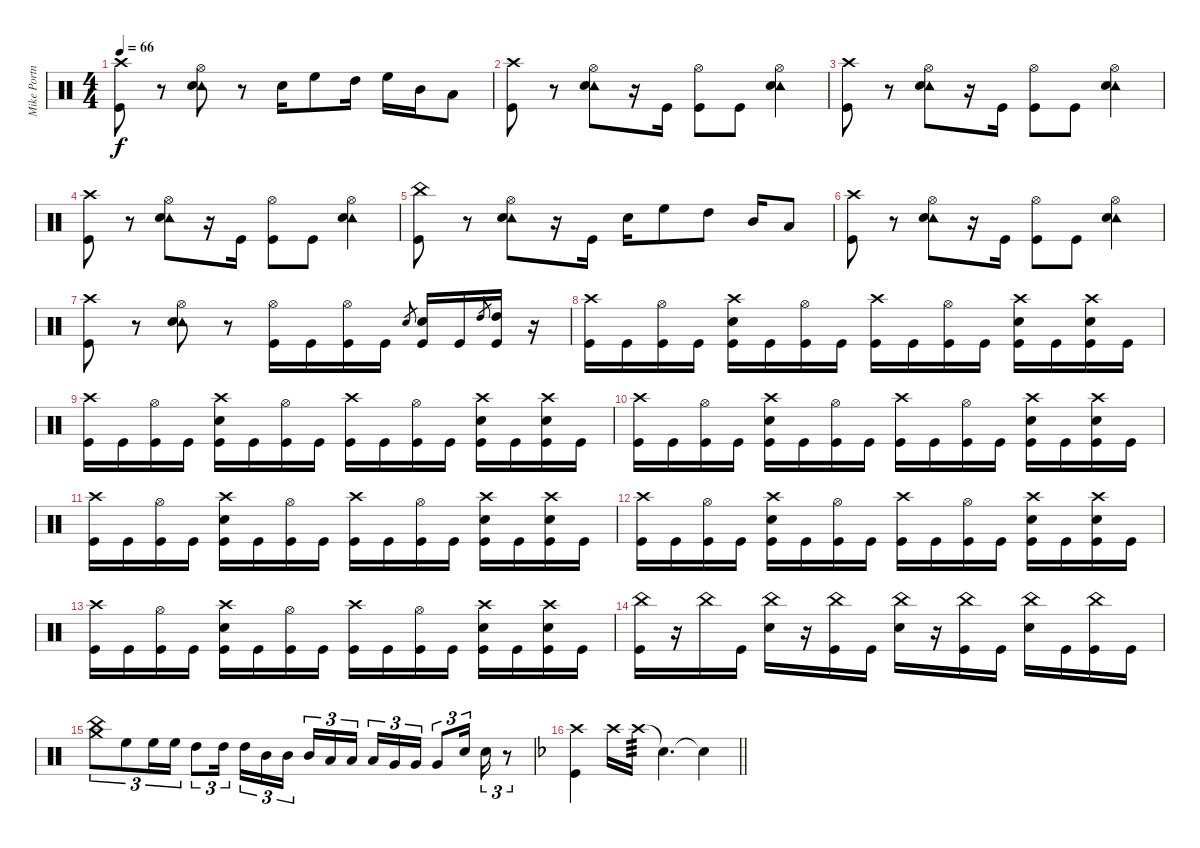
\track ("Mike Portnoy - Drums" "Mike Portn") {instrument percussion}
\staff {score}
\articulation defaults
\ts (4 4)
\tempo 66
\clef neutral
\ks aminor
("Crash high (hit)" "Kick (hit)").8{dy f} r.8 ("Hi-Hat (open)" "Tambourine (hit)" "Snare (hit) 2").8 r.8 "Snare (hit) 2".16 "High Floor Tom (hit)".8 "High Tom (hit)".16 "High Floor Tom (hit)".16 "Mid Tom (hit)".16 "Low Tom (hit)".8 |
("Crash high (hit)" "Kick (hit)").8 r.8 ("Hi-Hat (open)" "Tambourine (hit)" "Snare (hit) 2").8 r.16 "Kick (hit)".16 ("Hi-Hat (open)" "Kick (hit)").8 "Kick (hit)".8 ("Hi-Hat (open)" "Tambourine (hit)" "Snare (hit) 2").4 |
("Crash high (hit)" "Kick (hit)").8 r.8 ("Hi-Hat (open)" "Tambourine (hit)" "Snare (hit) 2").8 r.16 "Kick (hit)".16 ("Hi-Hat (open)" "Kick (hit)").8 "Kick (hit)".8 ("Hi-Hat (open)" "Tambourine (hit)" "Snare (hit) 2").4 |
("Crash high (hit)" "Kick (hit)").8 r.8 ("Hi-Hat (open)" "Tambourine (hit)" "Snare (hit) 2").8 r.16 "Kick (hit)".16 ("Hi-Hat (open)" "Kick (hit)").8 "Kick (hit)".8 ("Hi-Hat (open)" "Tambourine (hit)" "Snare (hit) 2").4 |
("China (hit)" "Kick (hit)").8 r.8 ("Hi-Hat (open)" "Tambourine (hit)" "Snare (hit) 2").8 r.16 "Kick (hit)".16 "Snare (hit) 2".16 "High Floor Tom (hit)".8 "High Tom (hit)".8 "Mid Tom (hit)".16 "Low Tom (hit)".8 |
("Crash high (hit)" "Kick (hit)").8 r.8 ("Hi-Hat (open)" "Tambourine (hit)" "Snare (hit) 2").8 r.16 "Kick (hit)".16 ("Hi-Hat (open)" "Kick (hit)").8 "Kick (hit)".8 ("Hi-Hat (open)" "Tambourine (hit)" "Snare (hit) 2").4 |
("Crash high (hit)" "Kick (hit)").8 r.8 ("Hi-Hat (open)" "Tambourine (hit)" "Snare (hit) 2").8 r.8 ("Hi-Hat (open)" "Kick (hit)").16 "Kick (hit)".16 ("Hi-Hat (open)" "Kick (hit)").16 "Kick (hit)".16 "Snare (hit) 2".8{gr} ("Snare (hit) 2" "Kick (hit)").16 "Kick (hit)".16 "High Tom (hit)".8{gr} ("High Tom (hit)" "Kick (hit)").16 r.16 |
("Crash high (hit)" "Kick (hit)").16 "Kick (hit)".16 ("Hi-Hat (open)" "Kick (hit)").16 "Kick (hit)".16 ("Crash high (hit)" "Snare (hit) 2" "Kick (hit)").16 "Kick (hit)".16 ("Hi-Hat (open)" "Kick (hit)").16 "Kick (hit)".16 ("Crash high (hit)" "Kick (hit)").16 "Kick (hit)".16 ("Hi-Hat (open)" "Kick (hit)").16 "Kick (hit)".16 ("Crash high (hit)" "Snare (hit) 2" "Kick (hit)").16 "Kick (hit)".16 ("Crash high (hit)" "Snare (hit) 2" "Kick (hit)").16 "Kick (hit)".16 |
("Crash high (hit)" "Kick (hit)").16 "Kick (hit)".16 ("Hi-Hat (open)" "Kick (hit)").16 "Kick (hit)".16 ("Crash high (hit)" "Snare (hit) 2" "Kick (hit)").16 "Kick (hit)".16 ("Hi-Hat (open)" "Kick (hit)").16 "Kick (hit)".16 ("Crash high (hit)" "Kick (hit)").16 "Kick (hit)".16 ("Hi-Hat (open)" "Kick (hit)").16 "Kick (hit)".16 ("Crash high (hit)" "Snare (hit) 2" "Kick (hit)").16 "Kick (hit)".16 ("Crash high (hit)" "Snare (hit) 2" "Kick (hit)").16 "Kick (hit)".16 |
("Crash high (hit)" "Kick (hit)").16 "Kick (hit)".16 ("Hi-Hat (open)" "Kick (hit)").16 "Kick (hit)".16 ("Crash high (hit)" "Snare (hit) 2" "Kick (hit)").16 "Kick (hit)".16 ("Hi-Hat (open)" "Kick (hit)").16 "Kick (hit)".16 ("Crash high (hit)" "Kick (hit)").16 "Kick (hit)".16 ("Hi-Hat (open)" "Kick (hit)").16 "Kick (hit)".16 ("Crash high (hit)" "Snare (hit) 2" "Kick (hit)").16 "Kick (hit)".16 ("Crash high (hit)" "Snare (hit) 2" "Kick (hit)").16 "Kick (hit)".16 |
("Crash high (hit)" "Kick (hit)").16 "Kick (hit)".16 ("Hi-Hat (open)" "Kick (hit)").16 "Kick (hit)".16 ("Crash high (hit)" "Snare (hit) 2" "Kick (hit)").16 "Kick (hit)".16 ("Hi-Hat (open)" "Kick (hit)").16 "Kick (hit)".16 ("Crash high (hit)" "Kick (hit)").16 "Kick (hit)".16 ("Hi-Hat (open)" "Kick (hit)").16 "Kick (hit)".16 ("Crash high (hit)" "Snare (hit) 2" "Kick (hit)").16 "Kick (hit)".16 ("Crash high (hit)" "Snare (hit) 2" "Kick (hit)").16 "Kick (hit)".16 |
("Crash high (hit)" "Kick (hit)").16 "Kick (hit)".16 ("Hi-Hat (open)" "Kick (hit)").16 "Kick (hit)".16 ("Crash high (hit)" "Snare (hit) 2" "Kick (hit)").16 "Kick (hit)".16 ("Hi-Hat (open)" "Kick (hit)").16 "Kick (hit)".16 ("Crash high (hit)" "Kick (hit)").16 "Kick (hit)".16 ("Hi-Hat (open)" "Kick (hit)").16 "Kick (hit)".16 ("Crash high (hit)" "Snare (hit) 2" "Kick (hit)").16 "Kick (hit)".16 ("Crash high (hit)" "Snare (hit) 2" "Kick (hit)").16 "Kick (hit)".16 |
("Crash high (hit)" "Kick (hit)").16 "Kick (hit)".16 ("Hi-Hat (open)" "Kick (hit)").16 "Kick (hit)".16 ("Crash high (hit)" "Snare (hit) 2" "Kick (hit)").16 "Kick (hit)".16 ("Hi-Hat (open)" "Kick (hit)").16 "Kick (hit)".16 ("Crash high (hit)" "Kick (hit)").16 "Kick (hit)".16 ("Hi-Hat (open)" "Kick (hit)").16 "Kick (hit)".16 ("Crash high (hit)" "Snare (hit) 2" "Kick (hit)").16 "Kick (hit)".16 ("Crash high (hit)" "Snare (hit) 2" "Kick (hit)").16 "Kick (hit)".16 |
("China (hit)" "Kick (hit)").16 r.16 "China (hit)".16 "Kick (hit)".16 ("China (hit)" "Snare (hit) 2").16 r.16 ("China (hit)" "Kick (hit)").16 "Kick (hit)".16 ("China (hit)" "Snare (hit) 2").16 r.16 ("China (hit)" "Kick (hit)").16 "Kick (hit)".16 ("China (hit)" "Snare (hit) 2").16 "Kick (hit)".16 ("China (hit)" "Kick (hit)").16 "Kick (hit)".16 |
("China (hit)" "Crash medium (hit)").8{tu (3 2)} "High Floor Tom (hit)".8{tu (3 2)} "High Floor Tom (hit)".16{tu (3 2)} "High Floor Tom (hit)".16{tu (3 2)} "High Tom (hit)".8{tu (3 2)} "High Tom (hit)".16{tu (3 2) beam splitsecondary} "High Tom (hit)".16{tu (3 2)} "Mid Tom (hit)".16{tu (3 2)} "Mid Tom (hit)".16{tu (3 2)} "Mid Tom (hit)".16{tu (3 2)} "Low Tom (hit)".16{tu (3 2)} "Low Tom (hit)".16{tu (3 2) beam splitsecondary} "Low Tom (hit)".16{tu (3 2)} "Very Low Tom (hit)".16{tu (3 2)} "Very Low Tom (hit)".16{tu (3 2)} "Very Low Tom (hit)".8{tu (3 2)} "Snare (hit) 2".16{tu (3 2)} "Snare (hit) 2".16{tu (3 2)} r.8{tu (3 2)} |
\barLineRight lightlight
\ks dminor
("Crash high (hit)" "Kick (hit)").4 "Crash high (hit)".16{volume 3} "Crash high (hit)".16{tp 3 volume 13} "Snare (hit)"{t}.4{d} "Snare (hit)"{t}.4
